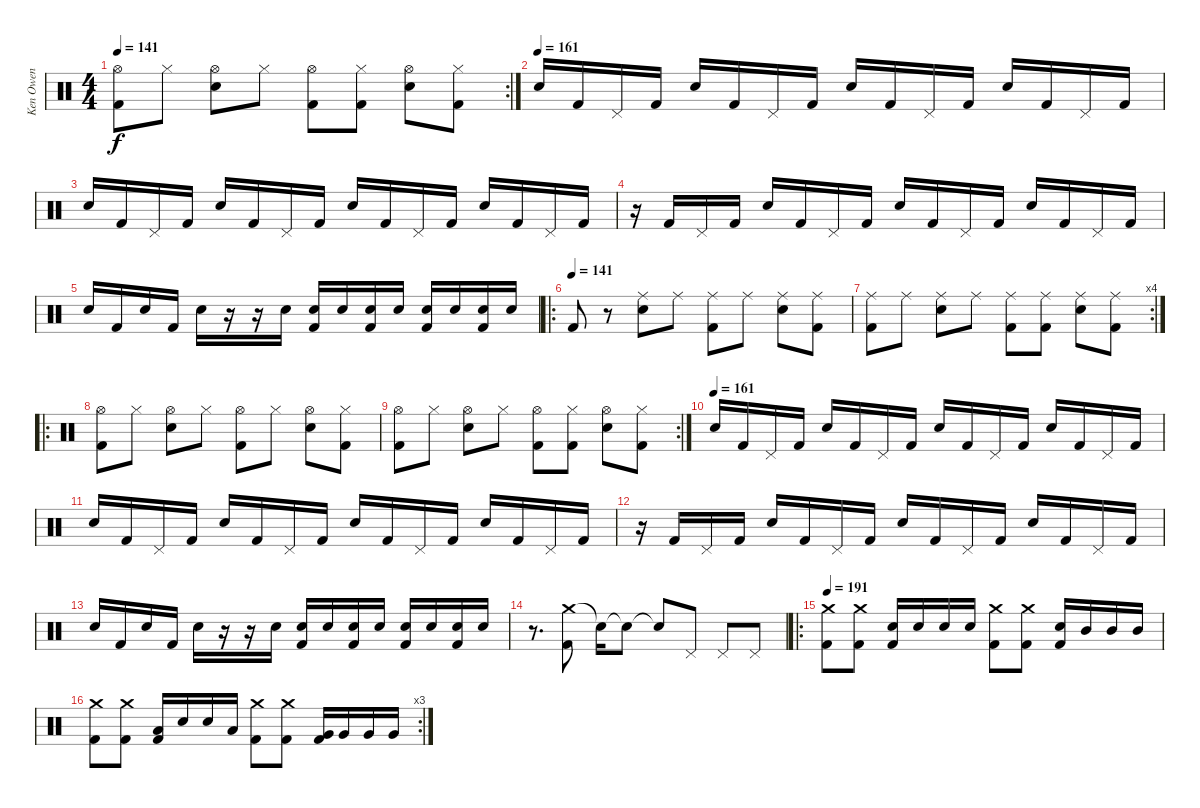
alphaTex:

\track ("Ken Owen" "Ken Owen") {instrument percussion}
\staff {score}
\articulation defaults
\rc 2
\ts (4 4)
\tempo 141
\clef neutral
\ks c
("Hi-Hat (open)" "Kick (hit) 2").8{dy f} "Hi-Hat (closed)".8 ("Hi-Hat (open)" "Electric Snare (hit)").8 "Hi-Hat (closed)".8 ("Hi-Hat (open)" "Kick (hit) 2").8 ("Hi-Hat (closed)" "Kick (hit) 2").8 ("Hi-Hat (open)" "Electric Snare (hit)").8 ("Hi-Hat (closed)" "Kick (hit) 2").8 |
\tempo (161)
"Electric Snare (hit)".16 "Kick (hit) 2".16 "Pedal Hi-Hat (hit)".16 "Kick (hit) 2".16 "Electric Snare (hit)".16 "Kick (hit) 2".16 "Pedal Hi-Hat (hit)".16 "Kick (hit) 2".16 "Electric Snare (hit)".16 "Kick (hit) 2".16 "Pedal Hi-Hat (hit)".16 "Kick (hit) 2".16 "Electric Snare (hit)".16 "Kick (hit) 2".16 "Pedal Hi-Hat (hit)".16 "Kick (hit) 2".16 |
"Electric Snare (hit)".16 "Kick (hit) 2".16 "Pedal Hi-Hat (hit)".16 "Kick (hit) 2".16 "Electric Snare (hit)".16 "Kick (hit) 2".16 "Pedal Hi-Hat (hit)".16 "Kick (hit) 2".16 "Electric Snare (hit)".16 "Kick (hit) 2".16 "Pedal Hi-Hat (hit)".16 "Kick (hit) 2".16 "Electric Snare (hit)".16 "Kick (hit) 2".16 "Pedal Hi-Hat (hit)".16 "Kick (hit) 2".16 |
r.16 "Kick (hit) 2".16 "Pedal Hi-Hat (hit)".16 "Kick (hit) 2".16 "Electric Snare (hit)".16 "Kick (hit) 2".16 "Pedal Hi-Hat (hit)".16 "Kick (hit) 2".16 "Electric Snare (hit)".16 "Kick (hit) 2".16 "Pedal Hi-Hat (hit)".16 "Kick (hit) 2".16 "Electric Snare (hit)".16 "Kick (hit) 2".16 "Pedal Hi-Hat (hit)".16 "Kick (hit) 2".16 |
"Electric Snare (hit)".16 "Kick (hit) 2".16 "Electric Snare (hit)".16 "Kick (hit) 2".16 "Electric Snare (hit)".16 r.16 r.16 "Electric Snare (hit)".16 ("Electric Snare (hit)" "Kick (hit) 2").16 "Electric Snare (hit)".16 ("Electric Snare (hit)" "Kick (hit) 2").16 "Electric Snare (hit)".16 ("Electric Snare (hit)" "Kick (hit) 2").16 "Electric Snare (hit)".16 ("Electric Snare (hit)" "Kick (hit) 2").16 "Electric Snare (hit)".16 |
\ro
\tempo (141)
"Kick (hit) 2".8 r.8 ("Ride (middle)" "Electric Snare (hit)").8 "Ride (middle)".8 ("Ride (middle)" "Kick (hit) 2").8 "Ride (middle)".8 ("Ride (middle)" "Electric Snare (hit)").8 ("Ride (middle)" "Kick (hit) 2").8 |
\rc 4
("Ride (middle)" "Kick (hit) 2").8 "Ride (middle)".8 ("Ride (middle)" "Electric Snare (hit)").8 "Ride (middle)".8 ("Ride (middle)" "Kick (hit) 2").8 ("Ride (middle)" "Kick (hit) 2").8 ("Ride (middle)" "Electric Snare (hit)").8 ("Ride (middle)" "Kick (hit) 2").8 |
\ro
("Hi-Hat (open)" "Kick (hit) 2").8 "Hi-Hat (closed)".8 ("Hi-Hat (open)" "Electric Snare (hit)").8 "Hi-Hat (closed)".8 ("Hi-Hat (open)" "Kick (hit) 2").8 "Hi-Hat (closed)".8 ("Hi-Hat (open)" "Electric Snare (hit)").8 ("Hi-Hat (closed)" "Kick (hit) 2").8 |
\rc 2
("Hi-Hat (open)" "Kick (hit) 2").8 "Hi-Hat (closed)".8 ("Hi-Hat (open)" "Electric Snare (hit)").8 "Hi-Hat (closed)".8 ("Hi-Hat (open)" "Kick (hit) 2").8 ("Hi-Hat (closed)" "Kick (hit) 2").8 ("Hi-Hat (open)" "Electric Snare (hit)").8 ("Hi-Hat (closed)" "Kick (hit) 2").8 |
\tempo (161)
"Electric Snare (hit)".16 "Kick (hit) 2".16 "Pedal Hi-Hat (hit)".16 "Kick (hit) 2".16 "Electric Snare (hit)".16 "Kick (hit) 2".16 "Pedal Hi-Hat (hit)".16 "Kick (hit) 2".16 "Electric Snare (hit)".16 "Kick (hit) 2".16 "Pedal Hi-Hat (hit)".16 "Kick (hit) 2".16 "Electric Snare (hit)".16 "Kick (hit) 2".16 "Pedal Hi-Hat (hit)".16 "Kick (hit) 2".16 |
"Electric Snare (hit)".16 "Kick (hit) 2".16 "Pedal Hi-Hat (hit)".16 "Kick (hit) 2".16 "Electric Snare (hit)".16 "Kick (hit) 2".16 "Pedal Hi-Hat (hit)".16 "Kick (hit) 2".16 "Electric Snare (hit)".16 "Kick (hit) 2".16 "Pedal Hi-Hat (hit)".16 "Kick (hit) 2".16 "Electric Snare (hit)".16 "Kick (hit) 2".16 "Pedal Hi-Hat (hit)".16 "Kick (hit) 2".16 |
r.16 "Kick (hit) 2".16 "Pedal Hi-Hat (hit)".16 "Kick (hit) 2".16 "Electric Snare (hit)".16 "Kick (hit) 2".16 "Pedal Hi-Hat (hit)".16 "Kick (hit) 2".16 "Electric Snare (hit)".16 "Kick (hit) 2".16 "Pedal Hi-Hat (hit)".16 "Kick (hit) 2".16 "Electric Snare (hit)".16 "Kick (hit) 2".16 "Pedal Hi-Hat (hit)".16 "Kick (hit) 2".16 |
"Electric Snare (hit)".16 "Kick (hit) 2".16 "Electric Snare (hit)".16 "Kick (hit) 2".16 "Electric Snare (hit)".16 r.16 r.16 "Electric Snare (hit)".16 ("Electric Snare (hit)" "Kick (hit) 2").16 "Electric Snare (hit)".16 ("Electric Snare (hit)" "Kick (hit) 2").16 "Electric Snare (hit)".16 ("Electric Snare (hit)" "Kick (hit) 2").16 "Electric Snare (hit)".16 ("Electric Snare (hit)" "Kick (hit) 2").16 "Electric Snare (hit)".16 |
r.8{d} ("Crash medium (hit)" "Kick (hit) 2").8 "Snare (hit)"{t}.16 "Snare (hit)"{t}.8 "Snare (hit)"{t}.8 "Pedal Hi-Hat (hit)".8 "Pedal Hi-Hat (hit)".8 "Pedal Hi-Hat (hit)".8 |
\ro
\tempo 191
("Crash medium (hit)" "Kick (hit) 2").8 ("Crash medium (hit)" "Kick (hit) 2").8 ("Electric Snare (hit)" "Kick (hit) 2").16 "Electric Snare (hit)".16 "Electric Snare (hit)".16 "Electric Snare (hit)".16 ("Crash medium (hit)" "Kick (hit) 2").8 ("Crash medium (hit)" "Kick (hit) 2").8 ("Electric Snare (hit)" "Kick (hit) 2").16 "Mid Tom (hit)".16 "Mid Tom (hit)".16 "Mid Tom (hit)".16 |
\rc 3
("Crash medium (hit)" "Kick (hit) 2").8 ("Crash medium (hit)" "Kick (hit) 2").8 ("Low Tom (hit)" "Kick (hit) 2").16 "Electric Snare (hit)".16 "Electric Snare (hit)".16 "Low Tom (hit)".16 ("Crash medium (hit)" "Kick (hit) 2").8 ("Crash medium (hit)" "Kick (hit) 2").8 ("Very Low Tom (hit)" "Kick (hit) 2").16 "Very Low Tom (hit)".16 "Very Low Tom (hit)".16 "Very Low Tom (hit)".16
